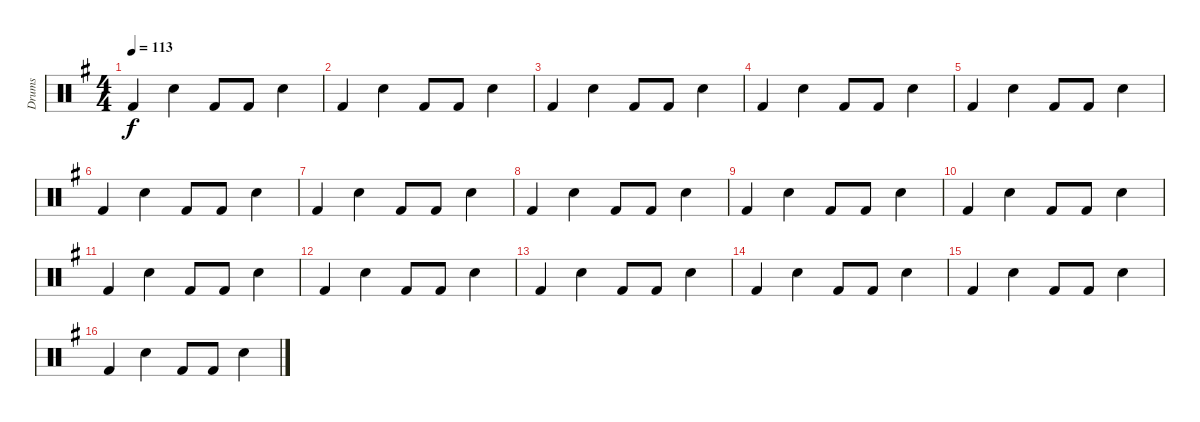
\track ("Drums" "Drums") {instrument percussion}
\staff {score}
\articulation defaults
\ts (4 4)
\tempo 113
\clef neutral
\ks g "Kick (hit) 2".4{dy f} "Electric Snare (hit)".4 "Kick (hit) 2".8 "Kick (hit) 2".8 "Electric Snare (hit)".4
|
"Kick (hit) 2".4 "Electric Snare (hit)".4 "Kick (hit) 2".8 "Kick (hit) 2".8 "Electric Snare (hit)".4 |
"Kick (hit) 2".4 "Electric Snare (hit)".4 "Kick (hit) 2".8 "Kick (hit) 2".8 "Electric Snare (hit)".4 |
"Kick (hit) 2".4 "Electric Snare (hit)".4 "Kick (hit) 2".8 "Kick (hit) 2".8 "Electric Snare (hit)".4 |
"Kick (hit) 2".4 "Electric Snare (hit)".4 "Kick (hit) 2".8 "Kick (hit) 2".8 "Electric Snare (hit)".4 |
"Kick (hit) 2".4 "Electric Snare (hit)".4 "Kick (hit) 2".8 "Kick (hit) 2".8 "Electric Snare (hit)".4 |
"Kick (hit) 2".4 "Electric Snare (hit)".4 "Kick (hit) 2".8 "Kick (hit) 2".8 "Electric Snare (hit)".4 |
"Kick (hit) 2".4 "Electric Snare (hit)".4 "Kick (hit) 2".8 "Kick (hit) 2".8 "Electric Snare (hit)".4 |
"Kick (hit) 2".4 "Electric Snare (hit)".4 "Kick (hit) 2".8 "Kick (hit) 2".8 "Electric Snare (hit)".4 |
"Kick (hit) 2".4 "Electric Snare (hit)".4 "Kick (hit) 2".8 "Kick (hit) 2".8 "Electric Snare (hit)".4 |
"Kick (hit) 2".4 "Electric Snare (hit)".4 "Kick (hit) 2".8 "Kick (hit) 2".8 "Electric Snare (hit)".4 |
"Kick (hit) 2".4 "Electric Snare (hit)".4 "Kick (hit) 2".8 "Kick (hit) 2".8 "Electric Snare (hit)".4 |
"Kick (hit) 2".4 "Electric Snare (hit)".4 "Kick (hit) 2".8 "Kick (hit) 2".8 "Electric Snare (hit)".4 |
"Kick (hit) 2".4 "Electric Snare (hit)".4 "Kick (hit) 2".8 "Kick (hit) 2".8 "Electric Snare (hit)".4 |
"Kick (hit) 2".4 "Electric Snare (hit)".4 "Kick (hit) 2".8 "Kick (hit) 2".8 "Electric Snare (hit)".4 |
"Kick (hit) 2".4 "Electric Snare (hit)".4 "Kick (hit) 2".8 "Kick (hit) 2".8 "Electric Snare (hit)".4
